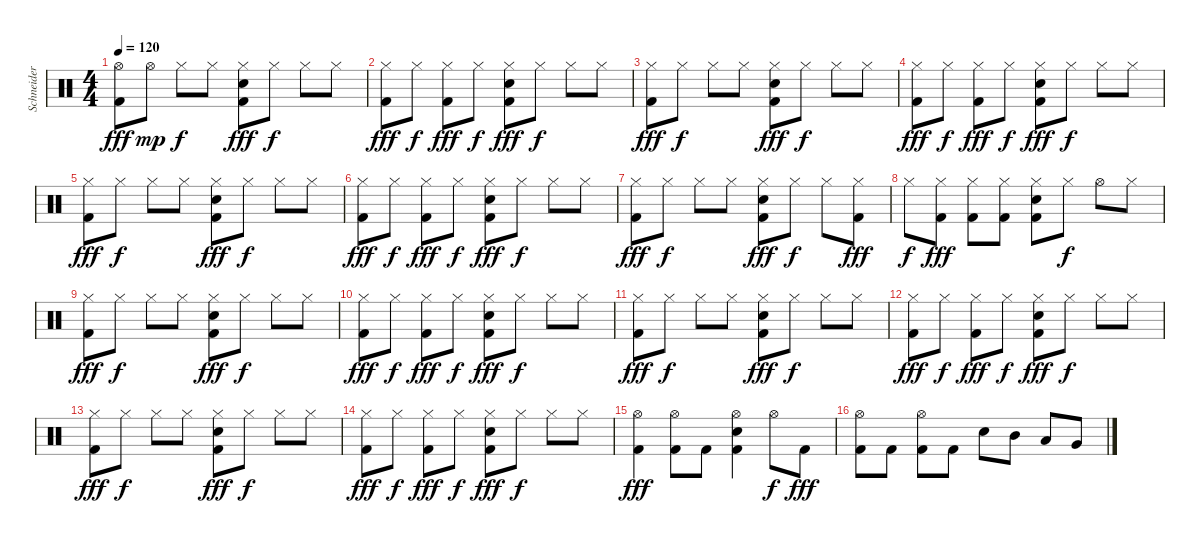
\track ("Schneider" "Schneider") {instrument percussion}
\staff {score}
\articulation defaults
\ts (4 4)
\tempo 120
\clef neutral
\ks c
("Hi-Hat (open)" "Kick (hit) 2").8{dy fff} "Hi-Hat (open)".8{dy mp} "Hi-Hat (closed)".8{dy f} "Hi-Hat (closed)".8 ("Hi-Hat (closed)" "Kick (hit) 2" "Snare (hit) 2").8{dy fff} "Hi-Hat (closed)".8{dy f} "Hi-Hat (closed)".8 "Hi-Hat (closed)".8 |
("Hi-Hat (closed)" "Kick (hit) 2").8{dy fff} "Hi-Hat (closed)".8{dy f} ("Hi-Hat (closed)" "Kick (hit) 2").8{dy fff} "Hi-Hat (closed)".8{dy f} ("Hi-Hat (closed)" "Kick (hit) 2" "Snare (hit) 2").8{dy fff} "Hi-Hat (closed)".8{dy f} "Hi-Hat (closed)".8 "Hi-Hat (closed)".8 |
("Hi-Hat (closed)" "Kick (hit) 2").8{dy fff} "Hi-Hat (closed)".8{dy f} "Hi-Hat (closed)".8 "Hi-Hat (closed)".8 ("Hi-Hat (closed)" "Kick (hit) 2" "Snare (hit) 2").8{dy fff} "Hi-Hat (closed)".8{dy f} "Hi-Hat (closed)".8 "Hi-Hat (closed)".8 |
("Hi-Hat (closed)" "Kick (hit) 2").8{dy fff} "Hi-Hat (closed)".8{dy f} ("Hi-Hat (closed)" "Kick (hit) 2").8{dy fff} "Hi-Hat (closed)".8{dy f} ("Hi-Hat (closed)" "Kick (hit) 2" "Snare (hit) 2").8{dy fff} "Hi-Hat (closed)".8{dy f} "Hi-Hat (closed)".8 "Hi-Hat (closed)".8 |
("Hi-Hat (closed)" "Kick (hit) 2").8{dy fff} "Hi-Hat (closed)".8{dy f} "Hi-Hat (closed)".8 "Hi-Hat (closed)".8 ("Hi-Hat (closed)" "Kick (hit) 2" "Snare (hit) 2").8{dy fff} "Hi-Hat (closed)".8{dy f} "Hi-Hat (closed)".8 "Hi-Hat (closed)".8 |
("Hi-Hat (closed)" "Kick (hit) 2").8{dy fff} "Hi-Hat (closed)".8{dy f} ("Hi-Hat (closed)" "Kick (hit) 2").8{dy fff} "Hi-Hat (closed)".8{dy f} ("Hi-Hat (closed)" "Kick (hit) 2" "Snare (hit) 2").8{dy fff} "Hi-Hat (closed)".8{dy f} "Hi-Hat (closed)".8 "Hi-Hat (closed)".8 |
("Hi-Hat (closed)" "Kick (hit) 2").8{dy fff} "Hi-Hat (closed)".8{dy f} "Hi-Hat (closed)".8 "Hi-Hat (closed)".8 ("Hi-Hat (closed)" "Kick (hit) 2" "Snare (hit) 2").8{dy fff} "Hi-Hat (closed)".8{dy f} "Hi-Hat (closed)".8 ("Hi-Hat (closed)" "Kick (hit) 2").8{dy fff} |
"Hi-Hat (closed)".8{dy f} ("Hi-Hat (closed)" "Kick (hit) 2").8{dy fff} ("Hi-Hat (closed)" "Kick (hit) 2").8 ("Hi-Hat (closed)" "Kick (hit) 2").8 ("Hi-Hat (closed)" "Kick (hit) 2" "Snare (hit) 2").8 "Hi-Hat (closed)".8{dy f} "Hi-Hat (open)".8 "Hi-Hat (closed)".8 |
("Hi-Hat (closed)" "Kick (hit) 2").8{dy fff} "Hi-Hat (closed)".8{dy f} "Hi-Hat (closed)".8 "Hi-Hat (closed)".8 ("Hi-Hat (closed)" "Kick (hit) 2" "Snare (hit) 2").8{dy fff} "Hi-Hat (closed)".8{dy f} "Hi-Hat (closed)".8 "Hi-Hat (closed)".8 |
("Hi-Hat (closed)" "Kick (hit) 2").8{dy fff} "Hi-Hat (closed)".8{dy f} ("Hi-Hat (closed)" "Kick (hit) 2").8{dy fff} "Hi-Hat (closed)".8{dy f} ("Hi-Hat (closed)" "Kick (hit) 2" "Snare (hit) 2").8{dy fff} "Hi-Hat (closed)".8{dy f} "Hi-Hat (closed)".8 "Hi-Hat (closed)".8 |
("Hi-Hat (closed)" "Kick (hit) 2").8{dy fff} "Hi-Hat (closed)".8{dy f} "Hi-Hat (closed)".8 "Hi-Hat (closed)".8 ("Hi-Hat (closed)" "Kick (hit) 2" "Snare (hit) 2").8{dy fff} "Hi-Hat (closed)".8{dy f} "Hi-Hat (closed)".8 "Hi-Hat (closed)".8 |
("Hi-Hat (closed)" "Kick (hit) 2").8{dy fff} "Hi-Hat (closed)".8{dy f} ("Hi-Hat (closed)" "Kick (hit) 2").8{dy fff} "Hi-Hat (closed)".8{dy f} ("Hi-Hat (closed)" "Kick (hit) 2" "Snare (hit) 2").8{dy fff} "Hi-Hat (closed)".8{dy f} "Hi-Hat (closed)".8 "Hi-Hat (closed)".8 |
("Hi-Hat (closed)" "Kick (hit) 2").8{dy fff} "Hi-Hat (closed)".8{dy f} "Hi-Hat (closed)".8 "Hi-Hat (closed)".8 ("Hi-Hat (closed)" "Kick (hit) 2" "Snare (hit) 2").8{dy fff} "Hi-Hat (closed)".8{dy f} "Hi-Hat (closed)".8 "Hi-Hat (closed)".8 |
("Hi-Hat (closed)" "Kick (hit) 2").8{dy fff} "Hi-Hat (closed)".8{dy f} ("Hi-Hat (closed)" "Kick (hit) 2").8{dy fff} "Hi-Hat (closed)".8{dy f} ("Hi-Hat (closed)" "Kick (hit) 2" "Snare (hit) 2").8{dy fff} "Hi-Hat (closed)".8{dy f} "Hi-Hat (closed)".8 "Hi-Hat (closed)".8 |
("Hi-Hat (open)" "Kick (hit) 2").4{dy fff} ("Hi-Hat (open)" "Kick (hit) 2").8 "Kick (hit) 2".8 ("Hi-Hat (open)" "Kick (hit) 2" "Snare (hit) 2").4 "Hi-Hat (open)".8{dy f} "Kick (hit) 2".8{dy fff} |
("Hi-Hat (open)" "Kick (hit) 2").8 "Kick (hit) 2".8 ("Hi-Hat (open)" "Kick (hit) 2").8 "Kick (hit) 2".8 "Snare (hit) 2".8 "Mid Tom (hit)".8 "Low Tom (hit)".8 "Very Low Tom (hit)".8
